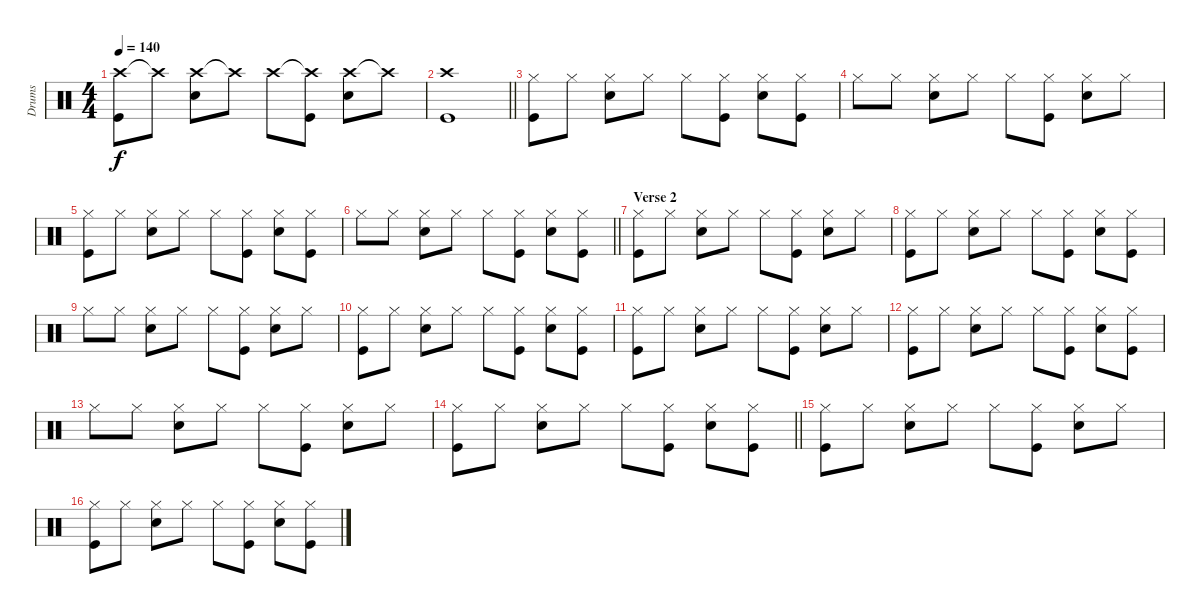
\track ("Drums" "Drums") {instrument percussion}
\staff {score}
\articulation defaults
\ts (4 4)
\tempo 140
\clef neutral
\ks c
("Crash high (hit)" "Kick (hit)").8{dy f} "Crash high (hit)"{t}.8 ("Crash high (hit)" "Snare (hit) 2").8 "Crash high (hit)"{t}.8 "Crash high (hit)".8 ("Crash high (hit)"{t} "Kick (hit)").8 ("Crash high (hit)" "Snare (hit) 2").8 "Crash high (hit)"{t}.8 |
\barLineRight lightlight
("Crash high (hit)" "Kick (hit)").1 |
("Hi-Hat (closed)" "Kick (hit)").8 "Hi-Hat (closed)".8 ("Hi-Hat (closed)" "Electric Snare (hit)").8 "Hi-Hat (closed)".8 "Hi-Hat (closed)".8 ("Hi-Hat (closed)" "Kick (hit)").8 ("Hi-Hat (closed)" "Electric Snare (hit)").8 ("Hi-Hat (closed)" "Kick (hit)").8 |
"Hi-Hat (closed)".8 "Hi-Hat (closed)".8 ("Hi-Hat (closed)" "Electric Snare (hit)").8 "Hi-Hat (closed)".8 "Hi-Hat (closed)".8 ("Hi-Hat (closed)" "Kick (hit)").8 ("Hi-Hat (closed)" "Electric Snare (hit)").8 "Hi-Hat (closed)".8 |
("Hi-Hat (closed)" "Kick (hit)").8 "Hi-Hat (closed)".8 ("Hi-Hat (closed)" "Electric Snare (hit)").8 "Hi-Hat (closed)".8 "Hi-Hat (closed)".8 ("Hi-Hat (closed)" "Kick (hit)").8 ("Hi-Hat (closed)" "Electric Snare (hit)").8 ("Hi-Hat (closed)" "Kick (hit)").8 |
\barLineRight lightlight "Hi-Hat (closed)".8 "Hi-Hat (closed)".8
("Hi-Hat (closed)" "Electric Snare (hit)").8 "Hi-Hat (closed)".8 "Hi-Hat (closed)".8 ("Hi-Hat (closed)" "Kick (hit)").8 ("Hi-Hat (closed)" "Snare (hit) 2").8 ("Hi-Hat (closed)" "Kick (hit)").8 |
\section ("" "Verse 2")
("Hi-Hat (closed)" "Kick (hit)").8 "Hi-Hat (closed)".8 ("Hi-Hat (closed)" "Snare (hit) 2").8 "Hi-Hat (closed)".8 "Hi-Hat (closed)".8 ("Hi-Hat (closed)" "Kick (hit)").8 ("Hi-Hat (closed)" "Snare (hit) 2").8 "Hi-Hat (closed)".8 |
("Hi-Hat (closed)" "Kick (hit)").8 "Hi-Hat (closed)".8 ("Hi-Hat (closed)" "Snare (hit) 2").8 "Hi-Hat (closed)".8 "Hi-Hat (closed)".8 ("Hi-Hat (closed)" "Kick (hit)").8 ("Hi-Hat (closed)" "Snare (hit) 2").8 ("Hi-Hat (closed)" "Kick (hit)").8 |
"Hi-Hat (closed)".8 "Hi-Hat (closed)".8 ("Hi-Hat (closed)" "Snare (hit) 2").8 "Hi-Hat (closed)".8 "Hi-Hat (closed)".8 ("Hi-Hat (closed)" "Kick (hit)").8 ("Hi-Hat (closed)" "Snare (hit) 2").8 "Hi-Hat (closed)".8 |
("Hi-Hat (closed)" "Kick (hit)").8 "Hi-Hat (closed)".8 ("Hi-Hat (closed)" "Snare (hit) 2").8 "Hi-Hat (closed)".8 "Hi-Hat (closed)".8 ("Hi-Hat (closed)" "Kick (hit)").8 ("Hi-Hat (closed)" "Snare (hit) 2").8 ("Hi-Hat (closed)" "Kick (hit)").8 |
("Hi-Hat (closed)" "Kick (hit)").8 "Hi-Hat (closed)".8 ("Hi-Hat (closed)" "Snare (hit) 2").8 "Hi-Hat (closed)".8 "Hi-Hat (closed)".8 ("Hi-Hat (closed)" "Kick (hit)").8 ("Hi-Hat (closed)" "Snare (hit) 2").8 "Hi-Hat (closed)".8 |
("Hi-Hat (closed)" "Kick (hit)").8 "Hi-Hat (closed)".8 ("Hi-Hat (closed)" "Snare (hit) 2").8 "Hi-Hat (closed)".8 "Hi-Hat (closed)".8 ("Hi-Hat (closed)" "Kick (hit)").8 ("Hi-Hat (closed)" "Snare (hit) 2").8 ("Hi-Hat (closed)" "Kick (hit)").8 |
"Hi-Hat (closed)".8 "Hi-Hat (closed)".8 ("Hi-Hat (closed)" "Snare (hit) 2").8 "Hi-Hat (closed)".8 "Hi-Hat (closed)".8 ("Hi-Hat (closed)" "Kick (hit)").8 ("Hi-Hat (closed)" "Snare (hit) 2").8 "Hi-Hat (closed)".8 |
\barLineRight lightlight
("Hi-Hat (closed)" "Kick (hit)").8 "Hi-Hat (closed)".8 ("Hi-Hat (closed)" "Snare (hit) 2").8 "Hi-Hat (closed)".8 "Hi-Hat (closed)".8 ("Hi-Hat (closed)" "Kick (hit)").8 ("Hi-Hat (closed)" "Snare (hit) 2").8 ("Hi-Hat (closed)" "Kick (hit)").8 |
("Hi-Hat (closed)" "Kick (hit)").8 "Hi-Hat (closed)".8 ("Hi-Hat (closed)" "Snare (hit) 2").8 "Hi-Hat (closed)".8 "Hi-Hat (closed)".8 ("Hi-Hat (closed)" "Kick (hit)").8 ("Hi-Hat (closed)" "Snare (hit) 2").8 "Hi-Hat (closed)".8 |
("Hi-Hat (closed)" "Kick (hit)").8 "Hi-Hat (closed)".8 ("Hi-Hat (closed)" "Snare (hit) 2").8 "Hi-Hat (closed)".8 "Hi-Hat (closed)".8 ("Hi-Hat (closed)" "Kick (hit)").8 ("Hi-Hat (closed)" "Snare (hit) 2").8 ("Hi-Hat (closed)" "Kick (hit)").8
